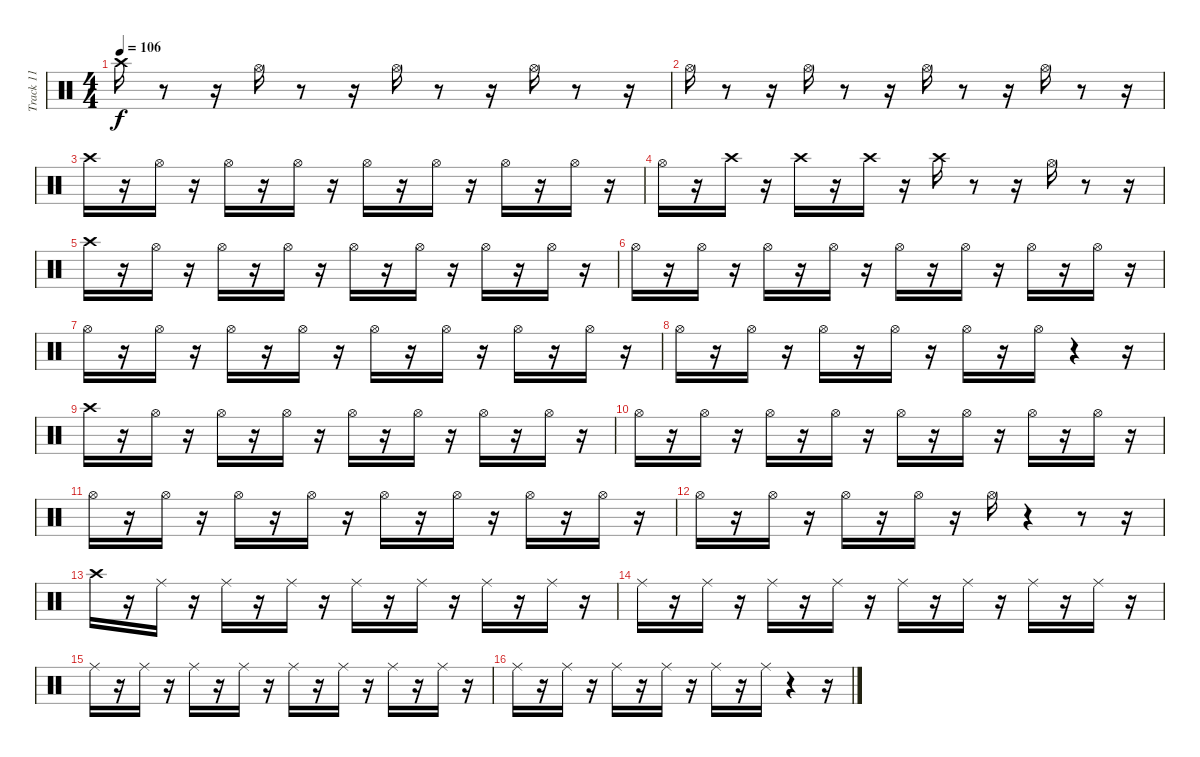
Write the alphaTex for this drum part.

\track ("Track 11" "Track 11") {instrument percussion}
\staff {score}
\articulation defaults
\ts (4 4)
\tempo 106
\clef neutral
\ks c "Crash high (hit)".16{dy f}
r.8 r.16 "Hi-Hat (open)".16 r.8 r.16 "Hi-Hat (open)".16 r.8 r.16 "Hi-Hat (open)".16 r.8 r.16 |
"Hi-Hat (open)".16 r.8 r.16 "Hi-Hat (open)".16 r.8 r.16 "Hi-Hat (open)".16 r.8 r.16 "Hi-Hat (open)".16 r.8 r.16 |
"Crash high (hit)".16 r.16 "Hi-Hat (open)".16 r.16 "Hi-Hat (open)".16 r.16 "Hi-Hat (open)".16 r.16 "Hi-Hat (open)".16 r.16 "Hi-Hat (open)".16 r.16 "Hi-Hat (open)".16 r.16 "Hi-Hat (open)".16 r.16 |
"Hi-Hat (open)".16 r.16 "Crash high (hit)".16 r.16 "Crash high (hit)".16 r.16 "Crash high (hit)".16 r.16 "Crash high (hit)".16 r.8 r.16 "Hi-Hat (open)".16 r.8 r.16 |
"Crash high (hit)".16 r.16 "Hi-Hat (open)".16 r.16 "Hi-Hat (open)".16 r.16 "Hi-Hat (open)".16 r.16 "Hi-Hat (open)".16 r.16 "Hi-Hat (open)".16 r.16 "Hi-Hat (open)".16 r.16 "Hi-Hat (open)".16 r.16 |
"Hi-Hat (open)".16 r.16 "Hi-Hat (open)".16 r.16 "Hi-Hat (open)".16 r.16 "Hi-Hat (open)".16 r.16 "Hi-Hat (open)".16 r.16 "Hi-Hat (open)".16 r.16 "Hi-Hat (open)".16 r.16 "Hi-Hat (open)".16 r.16 |
"Hi-Hat (open)".16 r.16 "Hi-Hat (open)".16 r.16 "Hi-Hat (open)".16 r.16 "Hi-Hat (open)".16 r.16 "Hi-Hat (open)".16 r.16 "Hi-Hat (open)".16 r.16 "Hi-Hat (open)".16 r.16 "Hi-Hat (open)".16 r.16 |
"Hi-Hat (open)".16 r.16 "Hi-Hat (open)".16 r.16 "Hi-Hat (open)".16 r.16 "Hi-Hat (open)".16 r.16 "Hi-Hat (open)".16 r.16 "Hi-Hat (open)".16 r.4 r.16 |
"Crash high (hit)".16 r.16 "Hi-Hat (open)".16 r.16 "Hi-Hat (open)".16 r.16 "Hi-Hat (open)".16 r.16 "Hi-Hat (open)".16 r.16 "Hi-Hat (open)".16 r.16 "Hi-Hat (open)".16 r.16 "Hi-Hat (open)".16 r.16 |
"Hi-Hat (open)".16 r.16 "Hi-Hat (open)".16 r.16 "Hi-Hat (open)".16 r.16 "Hi-Hat (open)".16 r.16 "Hi-Hat (open)".16 r.16 "Hi-Hat (open)".16 r.16 "Hi-Hat (open)".16 r.16 "Hi-Hat (open)".16 r.16 |
"Hi-Hat (open)".16 r.16 "Hi-Hat (open)".16 r.16 "Hi-Hat (open)".16 r.16 "Hi-Hat (open)".16 r.16 "Hi-Hat (open)".16 r.16 "Hi-Hat (open)".16 r.16 "Hi-Hat (open)".16 r.16 "Hi-Hat (open)".16 r.16 |
"Hi-Hat (open)".16 r.16 "Hi-Hat (open)".16 r.16 "Hi-Hat (open)".16 r.16 "Hi-Hat (open)".16 r.16 "Hi-Hat (open)".16 r.4 r.8 r.16 |
"Crash high (hit)".16 r.16 "Ride (middle)".16 r.16 "Ride (middle)".16 r.16 "Ride (middle)".16 r.16 "Ride (middle)".16 r.16 "Ride (middle)".16 r.16 "Ride (middle)".16 r.16 "Ride (middle)".16 r.16 |
"Ride (middle)".16 r.16 "Ride (middle)".16 r.16 "Ride (middle)".16 r.16 "Ride (middle)".16 r.16 "Ride (middle)".16 r.16 "Ride (middle)".16 r.16 "Ride (middle)".16 r.16 "Ride (middle)".16 r.16 |
"Ride (middle)".16 r.16 "Ride (middle)".16 r.16 "Ride (middle)".16 r.16 "Ride (middle)".16 r.16 "Ride (middle)".16 r.16 "Ride (middle)".16 r.16 "Ride (middle)".16 r.16 "Ride (middle)".16 r.16 |
"Ride (middle)".16 r.16 "Ride (middle)".16 r.16 "Ride (middle)".16 r.16 "Ride (middle)".16 r.16 "Ride (middle)".16 r.16 "Ride (middle)".16 r.4 r.16
